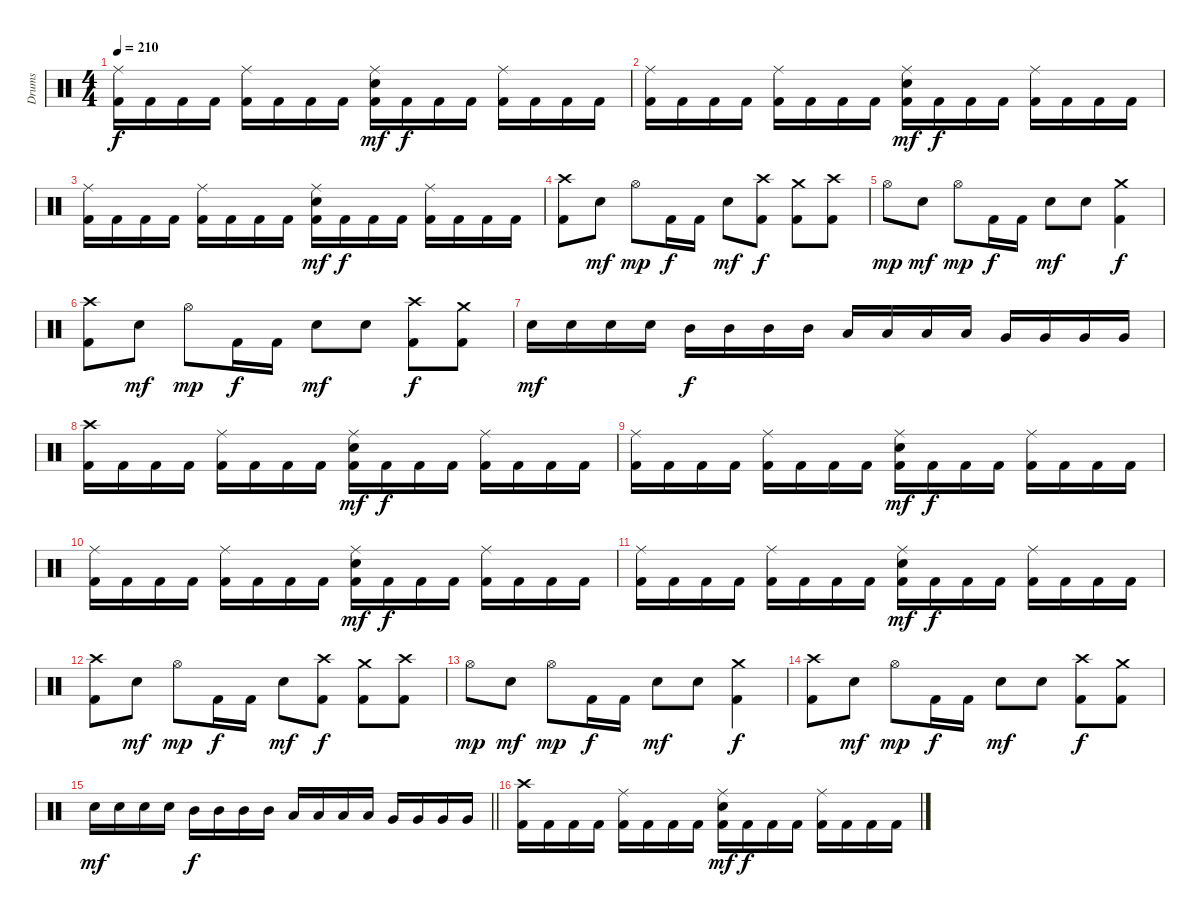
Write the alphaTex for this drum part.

\track ("Drums" "Drums") {instrument percussion}
\staff {score}
\articulation defaults
\ts (4 4)
\tempo 210
\clef neutral
\ks c
("Ride (middle)" "Kick (hit) 2").16{dy f} "Kick (hit) 2".16 "Kick (hit) 2".16 "Kick (hit) 2".16 ("Ride (middle)" "Kick (hit) 2").16 "Kick (hit) 2".16 "Kick (hit) 2".16 "Kick (hit) 2".16 ("Ride (middle)" "Electric Snare (hit)" "Kick (hit) 2").16{dy mf} "Kick (hit) 2".16{dy f} "Kick (hit) 2".16 "Kick (hit) 2".16 ("Ride (middle)" "Kick (hit) 2").16 "Kick (hit) 2".16 "Kick (hit) 2".16 "Kick (hit) 2".16 |
("Ride (middle)" "Kick (hit) 2").16 "Kick (hit) 2".16 "Kick (hit) 2".16 "Kick (hit) 2".16 ("Ride (middle)" "Kick (hit) 2").16 "Kick (hit) 2".16 "Kick (hit) 2".16 "Kick (hit) 2".16 ("Ride (middle)" "Electric Snare (hit)" "Kick (hit) 2").16{dy mf} "Kick (hit) 2".16{dy f} "Kick (hit) 2".16 "Kick (hit) 2".16 ("Ride (middle)" "Kick (hit) 2").16 "Kick (hit) 2".16 "Kick (hit) 2".16 "Kick (hit) 2".16 |
("Ride (middle)" "Kick (hit) 2").16 "Kick (hit) 2".16 "Kick (hit) 2".16 "Kick (hit) 2".16 ("Ride (middle)" "Kick (hit) 2").16 "Kick (hit) 2".16 "Kick (hit) 2".16 "Kick (hit) 2".16 ("Ride (middle)" "Electric Snare (hit)" "Kick (hit) 2").16{dy mf} "Kick (hit) 2".16{dy f} "Kick (hit) 2".16 "Kick (hit) 2".16 ("Ride (middle)" "Kick (hit) 2").16 "Kick (hit) 2".16 "Kick (hit) 2".16 "Kick (hit) 2".16 |
("Crash high (hit)" "Kick (hit) 2").8 "Electric Snare (hit)".8{dy mf} "Hi-Hat (open)".8{dy mp} "Kick (hit) 2".16{dy f} "Kick (hit) 2".16 "Electric Snare (hit)".8{dy mf} ("Crash high (hit)" "Kick (hit) 2").8{dy f} ("Crash medium (hit)" "Kick (hit) 2").8 ("Crash high (hit)" "Kick (hit) 2").8 |
"Hi-Hat (open)".8{dy mp} "Electric Snare (hit)".8{dy mf} "Hi-Hat (open)".8{dy mp} "Kick (hit) 2".16{dy f} "Kick (hit) 2".16 "Electric Snare (hit)".8{dy mf} "Electric Snare (hit)".8 ("Crash medium (hit)" "Kick (hit) 2").4{dy f} |
("Crash high (hit)" "Kick (hit) 2").8 "Electric Snare (hit)".8{dy mf} "Hi-Hat (open)".8{dy mp} "Kick (hit) 2".16{dy f} "Kick (hit) 2".16 "Electric Snare (hit)".8{dy mf} "Electric Snare (hit)".8 ("Crash high (hit)" "Kick (hit) 2").8{dy f} ("Crash medium (hit)" "Kick (hit) 2").8 |
"Electric Snare (hit)".16{dy mf} "Electric Snare (hit)".16 "Electric Snare (hit)".16 "Electric Snare (hit)".16 "Mid Tom (hit)".16{dy f} "Mid Tom (hit)".16 "Mid Tom (hit)".16 "Mid Tom (hit)".16 "Low Tom (hit)".16 "Low Tom (hit)".16 "Low Tom (hit)".16 "Low Tom (hit)".16 "Very Low Tom (hit)".16 "Very Low Tom (hit)".16 "Very Low Tom (hit)".16 "Very Low Tom (hit)".16 |
("Crash high (hit)" "Kick (hit) 2").16 "Kick (hit) 2".16 "Kick (hit) 2".16 "Kick (hit) 2".16 ("Ride (middle)" "Kick (hit) 2").16 "Kick (hit) 2".16 "Kick (hit) 2".16 "Kick (hit) 2".16 ("Ride (middle)" "Electric Snare (hit)" "Kick (hit) 2").16{dy mf} "Kick (hit) 2".16{dy f} "Kick (hit) 2".16 "Kick (hit) 2".16 ("Ride (middle)" "Kick (hit) 2").16 "Kick (hit) 2".16 "Kick (hit) 2".16 "Kick (hit) 2".16 |
("Ride (middle)" "Kick (hit) 2").16 "Kick (hit) 2".16 "Kick (hit) 2".16 "Kick (hit) 2".16 ("Ride (middle)" "Kick (hit) 2").16 "Kick (hit) 2".16 "Kick (hit) 2".16 "Kick (hit) 2".16 ("Ride (middle)" "Electric Snare (hit)" "Kick (hit) 2").16{dy mf} "Kick (hit) 2".16{dy f} "Kick (hit) 2".16 "Kick (hit) 2".16 ("Ride (middle)" "Kick (hit) 2").16 "Kick (hit) 2".16 "Kick (hit) 2".16 "Kick (hit) 2".16 |
("Ride (middle)" "Kick (hit) 2").16 "Kick (hit) 2".16 "Kick (hit) 2".16 "Kick (hit) 2".16 ("Ride (middle)" "Kick (hit) 2").16 "Kick (hit) 2".16 "Kick (hit) 2".16 "Kick (hit) 2".16 ("Ride (middle)" "Electric Snare (hit)" "Kick (hit) 2").16{dy mf} "Kick (hit) 2".16{dy f} "Kick (hit) 2".16 "Kick (hit) 2".16 ("Ride (middle)" "Kick (hit) 2").16 "Kick (hit) 2".16 "Kick (hit) 2".16 "Kick (hit) 2".16 |
("Ride (middle)" "Kick (hit) 2").16 "Kick (hit) 2".16 "Kick (hit) 2".16 "Kick (hit) 2".16 ("Ride (middle)" "Kick (hit) 2").16 "Kick (hit) 2".16 "Kick (hit) 2".16 "Kick (hit) 2".16 ("Ride (middle)" "Electric Snare (hit)" "Kick (hit) 2").16{dy mf} "Kick (hit) 2".16{dy f} "Kick (hit) 2".16 "Kick (hit) 2".16 ("Ride (middle)" "Kick (hit) 2").16 "Kick (hit) 2".16 "Kick (hit) 2".16 "Kick (hit) 2".16 |
("Crash high (hit)" "Kick (hit) 2").8 "Electric Snare (hit)".8{dy mf} "Hi-Hat (open)".8{dy mp} "Kick (hit) 2".16{dy f} "Kick (hit) 2".16 "Electric Snare (hit)".8{dy mf} ("Crash high (hit)" "Kick (hit) 2").8{dy f} ("Crash medium (hit)" "Kick (hit) 2").8 ("Crash high (hit)" "Kick (hit) 2").8 |
"Hi-Hat (open)".8{dy mp} "Electric Snare (hit)".8{dy mf} "Hi-Hat (open)".8{dy mp} "Kick (hit) 2".16{dy f} "Kick (hit) 2".16 "Electric Snare (hit)".8{dy mf} "Electric Snare (hit)".8 ("Crash medium (hit)" "Kick (hit) 2").4{dy f} |
("Crash high (hit)" "Kick (hit) 2").8 "Electric Snare (hit)".8{dy mf} "Hi-Hat (open)".8{dy mp} "Kick (hit) 2".16{dy f} "Kick (hit) 2".16 "Electric Snare (hit)".8{dy mf} "Electric Snare (hit)".8 ("Crash high (hit)" "Kick (hit) 2").8{dy f} ("Crash medium (hit)" "Kick (hit) 2").8 |
\barLineRight lightlight "Electric Snare (hit)".16{dy mf} "Electric Snare (hit)".16 "Electric Snare (hit)".16 "Electric Snare (hit)".16 "Mid Tom (hit)".16{dy f} "Mid Tom (hit)".16 "Mid Tom (hit)".16 "Mid Tom (hit)".16 "Low Tom (hit)".16 "Low Tom (hit)".16 "Low Tom (hit)".16 "Low Tom (hit)".16 "Very Low Tom (hit)".16 "Very Low Tom (hit)".16 "Very Low Tom (hit)".16 "Very Low Tom (hit)".16
|
\section ("" "")
("Crash high (hit)" "Kick (hit) 2").16 "Kick (hit) 2".16 "Kick (hit) 2".16 "Kick (hit) 2".16 ("Ride (middle)" "Kick (hit) 2").16 "Kick (hit) 2".16 "Kick (hit) 2".16 "Kick (hit) 2".16 ("Ride (middle)" "Electric Snare (hit)" "Kick (hit) 2").16{dy mf} "Kick (hit) 2".16{dy f} "Kick (hit) 2".16 "Kick (hit) 2".16 ("Ride (middle)" "Kick (hit) 2").16 "Kick (hit) 2".16 "Kick (hit) 2".16 "Kick (hit) 2".16
